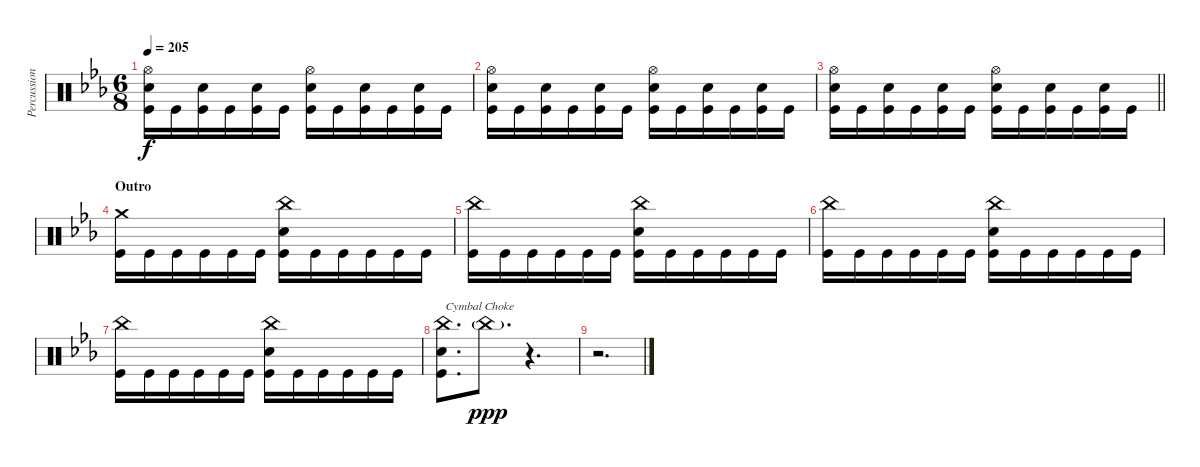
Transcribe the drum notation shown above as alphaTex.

\track ("Percussion" "Percussion") {instrument percussion}
\staff {score}
\articulation defaults
\ts (6 8)
\tempo 205
\clef neutral
\ks eb
("Hi-Hat (open)" "Electric Snare (hit)" "Kick (hit)").16{dy f} "Kick (hit)".16 ("Electric Snare (hit)" "Kick (hit)").16 "Kick (hit)".16 ("Electric Snare (hit)" "Kick (hit)").16 "Kick (hit)".16 ("Hi-Hat (open)" "Electric Snare (hit)" "Kick (hit)").16 "Kick (hit)".16 ("Electric Snare (hit)" "Kick (hit)").16 "Kick (hit)".16 ("Electric Snare (hit)" "Kick (hit)").16 "Kick (hit)".16 |
("Hi-Hat (open)" "Electric Snare (hit)" "Kick (hit)").16 "Kick (hit)".16 ("Electric Snare (hit)" "Kick (hit)").16 "Kick (hit)".16 ("Electric Snare (hit)" "Kick (hit)").16 "Kick (hit)".16 ("Hi-Hat (open)" "Electric Snare (hit)" "Kick (hit)").16 "Kick (hit)".16 ("Electric Snare (hit)" "Kick (hit)").16 "Kick (hit)".16 ("Electric Snare (hit)" "Kick (hit)").16 "Kick (hit)".16 |
\barLineRight lightlight
("Hi-Hat (open)" "Electric Snare (hit)" "Kick (hit)").16 "Kick (hit)".16 ("Electric Snare (hit)" "Kick (hit)").16 "Kick (hit)".16 ("Electric Snare (hit)" "Kick (hit)").16 "Kick (hit)".16 ("Hi-Hat (open)" "Electric Snare (hit)" "Kick (hit)").16 "Kick (hit)".16 ("Electric Snare (hit)" "Kick (hit)").16 "Kick (hit)".16 ("Electric Snare (hit)" "Kick (hit)").16 "Kick (hit)".16 |
\section ("" "Outro")
("Crash medium (hit)" "Kick (hit)").16 "Kick (hit)".16 "Kick (hit)".16 "Kick (hit)".16 "Kick (hit)".16 "Kick (hit)".16 ("China (hit)" "Electric Snare (hit)" "Kick (hit)").16 "Kick (hit)".16 "Kick (hit)".16 "Kick (hit)".16 "Kick (hit)".16 "Kick (hit)".16 |
("China (hit)" "Kick (hit)").16 "Kick (hit)".16 "Kick (hit)".16 "Kick (hit)".16 "Kick (hit)".16 "Kick (hit)".16 ("China (hit)" "Electric Snare (hit)" "Kick (hit)").16 "Kick (hit)".16 "Kick (hit)".16 "Kick (hit)".16 "Kick (hit)".16 "Kick (hit)".16 |
("China (hit)" "Kick (hit)").16 "Kick (hit)".16 "Kick (hit)".16 "Kick (hit)".16 "Kick (hit)".16 "Kick (hit)".16 ("China (hit)" "Electric Snare (hit)" "Kick (hit)").16 "Kick (hit)".16 "Kick (hit)".16 "Kick (hit)".16 "Kick (hit)".16 "Kick (hit)".16 |
("China (hit)" "Kick (hit)").16 "Kick (hit)".16 "Kick (hit)".16 "Kick (hit)".16 "Kick (hit)".16 "Kick (hit)".16 ("China (hit)" "Electric Snare (hit)" "Kick (hit)").16 "Kick (hit)".16 "Kick (hit)".16 "Kick (hit)".16 "Kick (hit)".16 "Kick (hit)".16 |
("China (hit)" "Electric Snare (hit)" "Kick (hit)").8{d txt "Cymbal Choke"} "China (hit)"{g}.8{d dy ppp volume 0} r.4{d} |
r.2{d}
